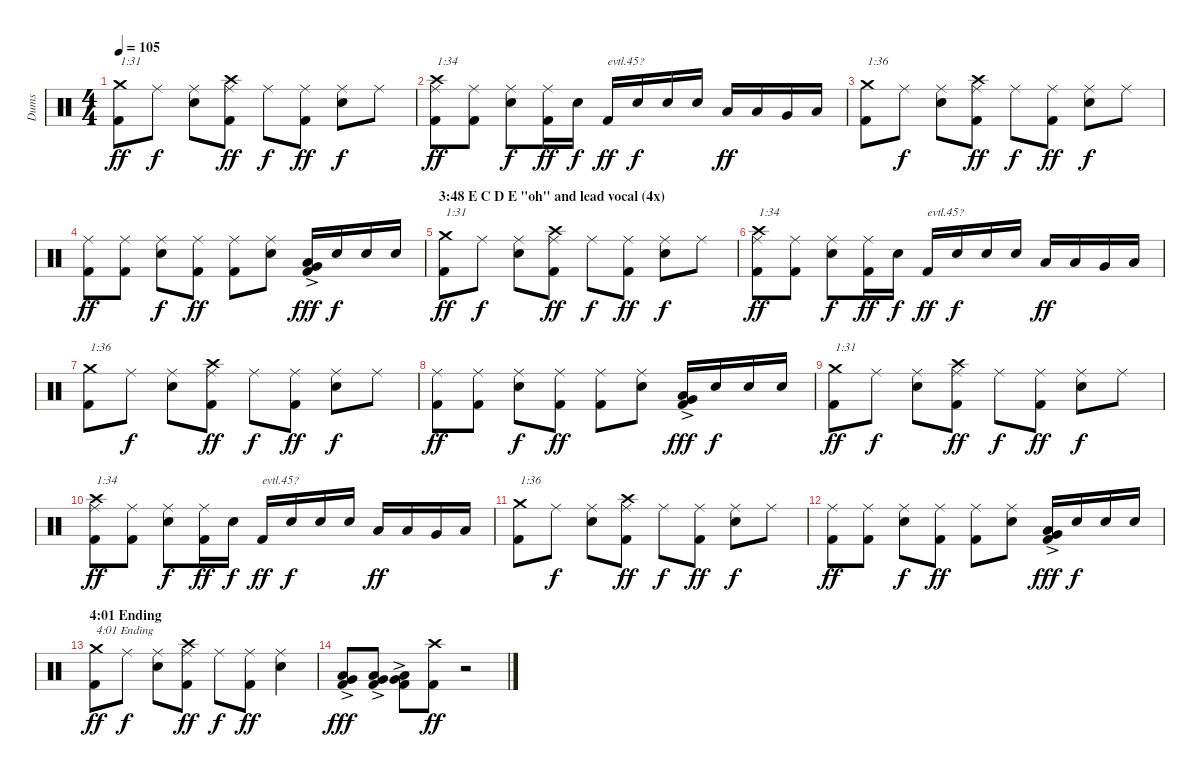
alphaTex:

\track ("Dums" "Dums") {instrument percussion}
\staff {score}
\articulation defaults
\ts (4 4)
\tempo 105
\clef neutral
\ks c
("Kick (hit) 2" "Crash medium (hit)").8{txt "1:31" dy ff} "Ride (middle)".8{dy f} ("Electric Snare (hit)" "Ride (middle)").8 ("Kick (hit) 2" "Ride (middle)" "Crash high (hit)").8{dy ff} "Ride (middle)".8{dy f} ("Kick (hit) 2" "Ride (middle)").8{dy ff} ("Electric Snare (hit)" "Ride (middle)").8{dy f} "Ride (middle)".8 |
("Kick (hit) 2" "Ride (middle)" "Crash high (hit)").8{txt "1:34" dy ff} ("Kick (hit) 2" "Ride (middle)").8 ("Electric Snare (hit)" "Ride (middle)").8{dy f} ("Kick (hit) 2" "Ride (middle)").16{dy ff} "Electric Snare (hit)".16{dy f} "Kick (hit) 2".16{txt "evtl.45?" dy ff} "Electric Snare (hit)".16{dy f} "Electric Snare (hit)".16 "Electric Snare (hit)".16 "Low Tom (hit)".16{dy ff} "Low Tom (hit)".16 "Very Low Tom (hit)".16 "Low Floor Tom (hit)".16 |
("Kick (hit) 2" "Crash medium (hit)").8{txt "1:36"} "Ride (middle)".8{dy f} ("Electric Snare (hit)" "Ride (middle)").8 ("Kick (hit) 2" "Ride (middle)" "Crash high (hit)").8{dy ff} "Ride (middle)".8{dy f} ("Kick (hit) 2" "Ride (middle)").8{dy ff} ("Electric Snare (hit)" "Ride (middle)").8{dy f} "Ride (middle)".8 |
("Kick (hit) 2" "Ride (middle)").8{dy ff} ("Kick (hit) 2" "Ride (middle)").8 ("Electric Snare (hit)" "Ride (middle)").8{dy f} ("Kick (hit) 2" "Ride (middle)").8{dy ff} ("Kick (hit) 2" "Ride (middle)").8 ("Electric Snare (hit)" "Ride (middle)").8 ("Kick (hit) 2" "Low Floor Tom (hit)"{ac} "Very Low Tom (hit)"{ac}).16{dy fff} "Electric Snare (hit)".16{dy f} "Electric Snare (hit)".16 "Electric Snare (hit)".16 |
\section ("" "3:48 E C D E \"oh\" and lead vocal (4x) ")
("Kick (hit) 2" "Crash medium (hit)").8{txt "1:31" dy ff} "Ride (middle)".8{dy f} ("Electric Snare (hit)" "Ride (middle)").8 ("Kick (hit) 2" "Ride (middle)" "Crash high (hit)").8{dy ff} "Ride (middle)".8{dy f} ("Kick (hit) 2" "Ride (middle)").8{dy ff} ("Electric Snare (hit)" "Ride (middle)").8{dy f} "Ride (middle)".8 |
("Kick (hit) 2" "Ride (middle)" "Crash high (hit)").8{txt "1:34" dy ff} ("Kick (hit) 2" "Ride (middle)").8 ("Electric Snare (hit)" "Ride (middle)").8{dy f} ("Kick (hit) 2" "Ride (middle)").16{dy ff} "Electric Snare (hit)".16{dy f} "Kick (hit) 2".16{txt "evtl.45?" dy ff} "Electric Snare (hit)".16{dy f} "Electric Snare (hit)".16 "Electric Snare (hit)".16 "Low Tom (hit)".16{dy ff} "Low Tom (hit)".16 "Very Low Tom (hit)".16 "Low Floor Tom (hit)".16 |
("Kick (hit) 2" "Crash medium (hit)").8{txt "1:36"} "Ride (middle)".8{dy f} ("Electric Snare (hit)" "Ride (middle)").8 ("Kick (hit) 2" "Ride (middle)" "Crash high (hit)").8{dy ff} "Ride (middle)".8{dy f} ("Kick (hit) 2" "Ride (middle)").8{dy ff} ("Electric Snare (hit)" "Ride (middle)").8{dy f} "Ride (middle)".8 |
("Kick (hit) 2" "Ride (middle)").8{dy ff} ("Kick (hit) 2" "Ride (middle)").8 ("Electric Snare (hit)" "Ride (middle)").8{dy f} ("Kick (hit) 2" "Ride (middle)").8{dy ff} ("Kick (hit) 2" "Ride (middle)").8 ("Electric Snare (hit)" "Ride (middle)").8 ("Kick (hit) 2" "Low Floor Tom (hit)"{ac} "Very Low Tom (hit)"{ac}).16{dy fff} "Electric Snare (hit)".16{dy f} "Electric Snare (hit)".16 "Electric Snare (hit)".16 |
("Kick (hit) 2" "Crash medium (hit)").8{txt "1:31" dy ff} "Ride (middle)".8{dy f} ("Electric Snare (hit)" "Ride (middle)").8 ("Kick (hit) 2" "Ride (middle)" "Crash high (hit)").8{dy ff} "Ride (middle)".8{dy f} ("Kick (hit) 2" "Ride (middle)").8{dy ff} ("Electric Snare (hit)" "Ride (middle)").8{dy f} "Ride (middle)".8 |
("Kick (hit) 2" "Ride (middle)" "Crash high (hit)").8{txt "1:34" dy ff} ("Kick (hit) 2" "Ride (middle)").8 ("Electric Snare (hit)" "Ride (middle)").8{dy f} ("Kick (hit) 2" "Ride (middle)").16{dy ff} "Electric Snare (hit)".16{dy f} "Kick (hit) 2".16{txt "evtl.45?" dy ff} "Electric Snare (hit)".16{dy f} "Electric Snare (hit)".16 "Electric Snare (hit)".16 "Low Tom (hit)".16{dy ff} "Low Tom (hit)".16 "Very Low Tom (hit)".16 "Low Floor Tom (hit)".16 |
("Kick (hit) 2" "Crash medium (hit)").8{txt "1:36"} "Ride (middle)".8{dy f} ("Electric Snare (hit)" "Ride (middle)").8 ("Kick (hit) 2" "Ride (middle)" "Crash high (hit)").8{dy ff} "Ride (middle)".8{dy f} ("Kick (hit) 2" "Ride (middle)").8{dy ff} ("Electric Snare (hit)" "Ride (middle)").8{dy f} "Ride (middle)".8 |
("Kick (hit) 2" "Ride (middle)").8{dy ff} ("Kick (hit) 2" "Ride (middle)").8 ("Electric Snare (hit)" "Ride (middle)").8{dy f} ("Kick (hit) 2" "Ride (middle)").8{dy ff} ("Kick (hit) 2" "Ride (middle)").8 ("Electric Snare (hit)" "Ride (middle)").8 ("Kick (hit) 2" "Low Floor Tom (hit)"{ac} "Very Low Tom (hit)"{ac}).16{dy fff} "Electric Snare (hit)".16{dy f} "Electric Snare (hit)".16 "Electric Snare (hit)".16 |
\section ("" "4:01 Ending")
("Kick (hit) 2" "Crash medium (hit)").8{txt "4:01 Ending" dy ff} "Ride (middle)".8{dy f} ("Electric Snare (hit)" "Ride (middle)").8 ("Kick (hit) 2" "Ride (middle)" "Crash high (hit)").8{dy ff} "Ride (middle)".8{dy f} ("Kick (hit) 2" "Ride (middle)").8{dy ff} ("Electric Snare (hit)" "Ride (middle)").4 |
("Kick (hit) 2"{ac} "Low Floor Tom (hit)"{ac} "Very Low Tom (hit)"{ac}).8{dy fff} ("Kick (hit) 2"{ac} "Low Floor Tom (hit)"{ac} "Very Low Tom (hit)"{ac}).8 ("Kick (hit) 2"{ac} "Low Floor Tom (hit)"{ac} "Very Low Tom (hit)"{ac}).8 ("Kick (hit) 2" "Crash high (hit)").8{dy ff} r.2
